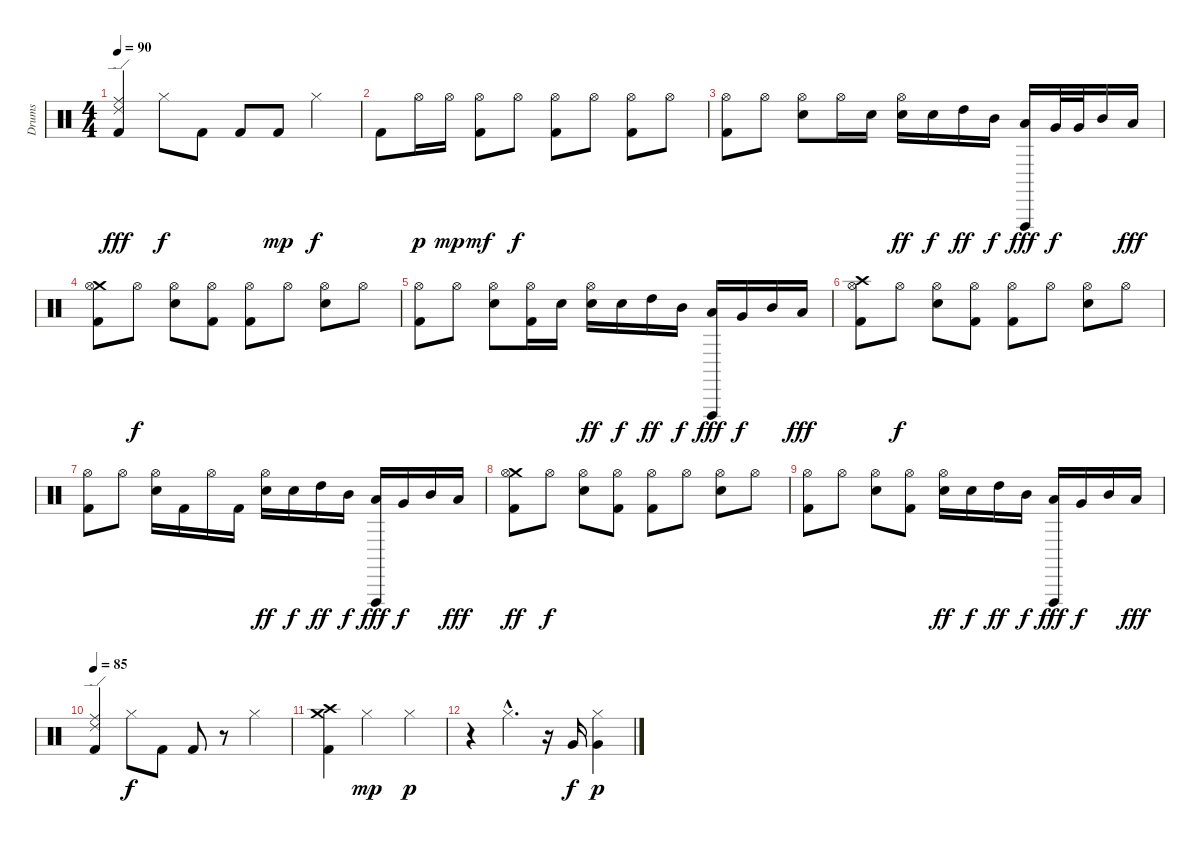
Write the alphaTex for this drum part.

\track ("Drums" "Drums") {instrument percussion}
\staff {score}
\articulation defaults
\ts (4 4)
\tempo 90
\clef neutral
\ks c
("Ride (edge) 2" "Ride (middle)" "Kick (hit) 2").4{dy fff} "Hi-Hat (closed)".8{dy f} "Kick (hit) 2".8 "Kick (hit) 2".8 "Kick (hit) 2".8{dy mp} "Hi-Hat (closed)".4{dy f} |
"Kick (hit) 2".8 "Hi-Hat (open)".16{dy p} "Hi-Hat (open)".16{dy mp} ("Hi-Hat (open)" "Kick (hit) 2").8{dy mf} "Hi-Hat (open)".8{dy f} ("Hi-Hat (open)" "Kick (hit) 2").8 "Hi-Hat (open)".8 ("Hi-Hat (open)" "Kick (hit) 2").8 "Hi-Hat (open)".8 |
("Hi-Hat (open)" "Kick (hit) 2").8 "Hi-Hat (open)".8 ("Hi-Hat (open)" "Electric Snare (hit)").8 "Hi-Hat (open)".16 "Electric Snare (hit)".16 ("Hi-Hat (open)" "Electric Snare (hit)").16{dy ff} "Electric Snare (hit)".16{dy f} "High Tom (hit)".16{dy ff} "Mid Tom (hit)".16{dy f} ("Vibraslap (hit)" "Low Tom (hit)").16{dy fff} "Very Low Tom (hit)".32{dy f} "Very Low Tom (hit)".32 "Mid Tom (hit)".16 "Low Tom (hit)".16{dy fff} |
("Crash medium (hit)" "Hi-Hat (open)" "Kick (hit) 2").8 "Hi-Hat (open)".8{dy f} ("Hi-Hat (open)" "Electric Snare (hit)").8 ("Hi-Hat (open)" "Kick (hit) 2").8 ("Hi-Hat (open)" "Kick (hit) 2").8 "Hi-Hat (open)".8 ("Hi-Hat (open)" "Electric Snare (hit)").8 "Hi-Hat (open)".8 |
("Hi-Hat (open)" "Kick (hit) 2").8 "Hi-Hat (open)".8 ("Hi-Hat (open)" "Electric Snare (hit)").8 ("Hi-Hat (open)" "Kick (hit) 2").16 "Electric Snare (hit)".16 ("Hi-Hat (open)" "Electric Snare (hit)").16{dy ff} "Electric Snare (hit)".16{dy f} "High Tom (hit)".16{dy ff} "Mid Tom (hit)".16{dy f} ("Vibraslap (hit)" "Low Tom (hit)").16{dy fff} "Very Low Tom (hit)".16{dy f} "Mid Tom (hit)".16 "Low Tom (hit)".16{dy fff} |
("Crash high (hit)" "Hi-Hat (open)" "Kick (hit) 2").8 "Hi-Hat (open)".8{dy f} ("Hi-Hat (open)" "Electric Snare (hit)").8 ("Hi-Hat (open)" "Kick (hit) 2").8 ("Hi-Hat (open)" "Kick (hit) 2").8 "Hi-Hat (open)".8 ("Hi-Hat (open)" "Electric Snare (hit)").8 "Hi-Hat (open)".8 |
("Hi-Hat (open)" "Kick (hit) 2").8 "Hi-Hat (open)".8 ("Hi-Hat (open)" "Electric Snare (hit)").16 "Kick (hit) 2".16 "Hi-Hat (open)".16 "Kick (hit) 2".16 ("Hi-Hat (open)" "Electric Snare (hit)").16{dy ff} "Electric Snare (hit)".16{dy f} "High Tom (hit)".16{dy ff} "Mid Tom (hit)".16{dy f} ("Vibraslap (hit)" "Low Tom (hit)").16{dy fff} "Very Low Tom (hit)".16{dy f} "Mid Tom (hit)".16 "Low Tom (hit)".16{dy fff} |
("Crash medium (hit)" "Hi-Hat (open)" "Kick (hit) 2").8{dy ff} "Hi-Hat (open)".8{dy f} ("Hi-Hat (open)" "Electric Snare (hit)").8 ("Hi-Hat (open)" "Kick (hit) 2").8 ("Hi-Hat (open)" "Kick (hit) 2").8 "Hi-Hat (open)".8 ("Hi-Hat (open)" "Electric Snare (hit)").8 "Hi-Hat (open)".8 |
("Hi-Hat (open)" "Kick (hit) 2").8 "Hi-Hat (open)".8 ("Hi-Hat (open)" "Electric Snare (hit)").8 ("Hi-Hat (open)" "Kick (hit) 2").8 ("Hi-Hat (open)" "Electric Snare (hit)").16{dy ff} "Electric Snare (hit)".16{dy f} "High Tom (hit)".16{dy ff} "Mid Tom (hit)".16{dy f} ("Vibraslap (hit)" "Low Tom (hit)").16{dy fff} "Very Low Tom (hit)".16{dy f} "Mid Tom (hit)".16 "Low Tom (hit)".16{dy fff} |
\tempo 85
("Ride (edge) 2" "Ride (middle)" "Kick (hit) 2").4 "Hi-Hat (closed)".8{dy f} "Kick (hit) 2".8 "Kick (hit) 2".8 r.8 "Hi-Hat (closed)".4 |
("Crash medium (hit)" "Crash high (hit)" "Kick (hit) 2").4 "Hi-Hat (closed)".2{dy mp} "Hi-Hat (closed)".4{dy p} |
r.4 "Hi-Hat (closed)"{hac}.4{d} r.16 "Very Low Tom (hit)".16{dy f} ("Hi-Hat (closed)" "Very Low Tom (hit)").4{dy p}
